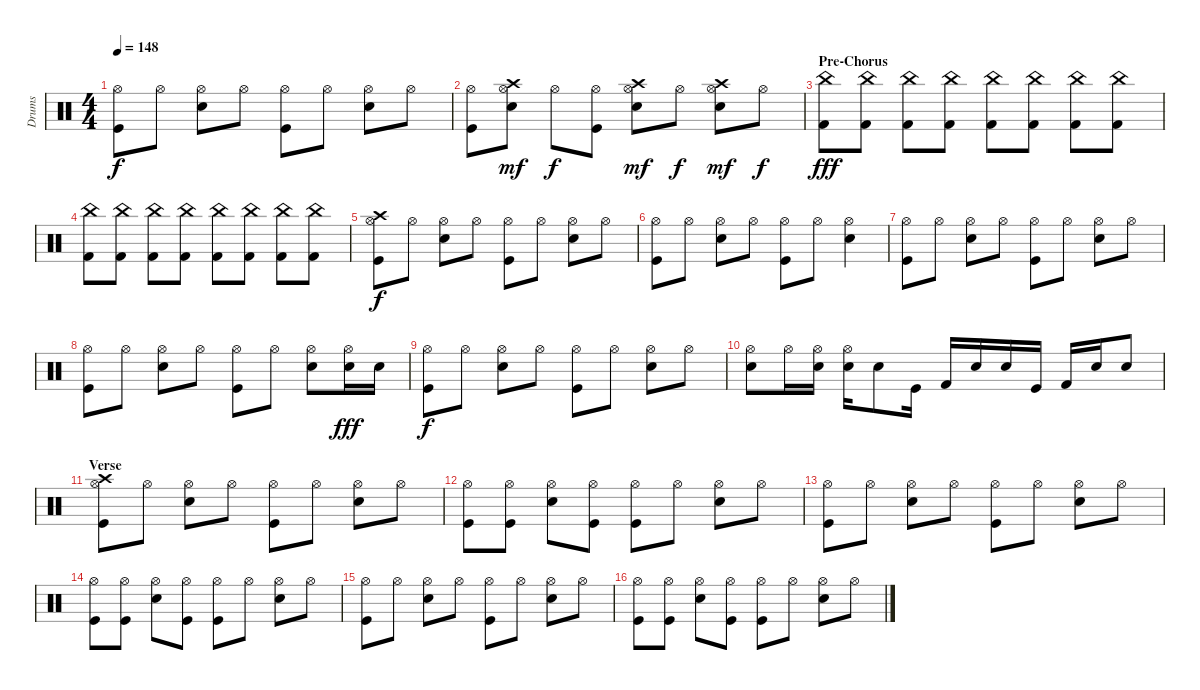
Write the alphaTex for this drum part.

\track ("Drums" "Drums") {instrument percussion}
\staff {score}
\articulation defaults
\ts (4 4)
\tempo 148
\clef neutral
\ks c
("Hi-Hat (open)" "Kick (hit)").8{dy f} "Hi-Hat (open)".8 ("Hi-Hat (open)" "Snare (hit) 2").8 "Hi-Hat (open)".8 ("Hi-Hat (open)" "Kick (hit)").8 "Hi-Hat (open)".8 ("Hi-Hat (open)" "Snare (hit) 2").8 "Hi-Hat (open)".8 |
("Hi-Hat (open)" "Kick (hit)").8 ("Crash high (hit)" "Hi-Hat (open)" "Snare (hit) 2").8{dy mf} "Hi-Hat (open)".8{dy f} ("Hi-Hat (open)" "Kick (hit)").8 ("Crash high (hit)" "Hi-Hat (open)" "Snare (hit) 2").8{dy mf} "Hi-Hat (open)".8{dy f} ("Crash high (hit)" "Hi-Hat (open)" "Snare (hit) 2").8{dy mf} "Hi-Hat (open)".8{dy f} |
\section ("" "Pre-Chorus")
("China (hit)" "Kick (hit) 2").8{dy fff} ("China (hit)" "Kick (hit) 2").8 ("China (hit)" "Kick (hit) 2").8 ("China (hit)" "Kick (hit) 2").8 ("China (hit)" "Kick (hit) 2").8 ("China (hit)" "Kick (hit) 2").8 ("China (hit)" "Kick (hit) 2").8 ("China (hit)" "Kick (hit) 2").8 |
("China (hit)" "Kick (hit) 2").8 ("China (hit)" "Kick (hit) 2").8 ("China (hit)" "Kick (hit) 2").8 ("China (hit)" "Kick (hit) 2").8 ("China (hit)" "Kick (hit) 2").8 ("China (hit)" "Kick (hit) 2").8 ("China (hit)" "Kick (hit) 2").8 ("China (hit)" "Kick (hit) 2").8 |
("Crash high (hit)" "Hi-Hat (open)" "Kick (hit)").8{dy f} "Hi-Hat (open)".8 ("Hi-Hat (open)" "Snare (hit) 2").8 "Hi-Hat (open)".8 ("Hi-Hat (open)" "Kick (hit)").8 "Hi-Hat (open)".8 ("Hi-Hat (open)" "Snare (hit) 2").8 "Hi-Hat (open)".8 |
("Hi-Hat (open)" "Kick (hit)").8 "Hi-Hat (open)".8 ("Hi-Hat (open)" "Snare (hit) 2").8 "Hi-Hat (open)".8 ("Hi-Hat (open)" "Kick (hit)").8 "Hi-Hat (open)".8 ("Hi-Hat (open)" "Snare (hit) 2").4 |
("Hi-Hat (open)" "Kick (hit)").8 "Hi-Hat (open)".8 ("Hi-Hat (open)" "Snare (hit) 2").8 "Hi-Hat (open)".8 ("Hi-Hat (open)" "Kick (hit)").8 "Hi-Hat (open)".8 ("Hi-Hat (open)" "Snare (hit) 2").8 "Hi-Hat (open)".8 |
("Hi-Hat (open)" "Kick (hit)").8 "Hi-Hat (open)".8 ("Hi-Hat (open)" "Snare (hit) 2").8 "Hi-Hat (open)".8 ("Hi-Hat (open)" "Kick (hit)").8 "Hi-Hat (open)".8 ("Hi-Hat (open)" "Snare (hit) 2").8 ("Hi-Hat (open)" "Electric Snare (hit)").16{dy fff} "Electric Snare (hit)".16 |
("Hi-Hat (open)" "Kick (hit)").8{dy f} "Hi-Hat (open)".8 ("Hi-Hat (open)" "Snare (hit) 2").8 "Hi-Hat (open)".8 ("Hi-Hat (open)" "Kick (hit)").8 "Hi-Hat (open)".8 ("Hi-Hat (open)" "Snare (hit) 2").8 "Hi-Hat (open)".8 |
("Hi-Hat (open)" "Snare (hit) 2").8 "Hi-Hat (open)".16 ("Hi-Hat (open)" "Snare (hit) 2").16 ("Hi-Hat (open)" "Electric Snare (hit)").16 "Snare (hit) 2".8 "Kick (hit)".16 "Kick (hit) 2".16 "Snare (hit) 2".16 "Electric Snare (hit)".16 "Kick (hit)".16 "Kick (hit) 2".16 "Snare (hit) 2".16 "Electric Snare (hit)".8 |
\section ("" "Verse")
("Crash high (hit)" "Hi-Hat (open)" "Kick (hit)").8 "Hi-Hat (open)".8 ("Hi-Hat (open)" "Snare (hit) 2").8 "Hi-Hat (open)".8 ("Hi-Hat (open)" "Kick (hit)").8 "Hi-Hat (open)".8 ("Hi-Hat (open)" "Snare (hit) 2").8 "Hi-Hat (open)".8 |
("Hi-Hat (open)" "Kick (hit)").8 ("Hi-Hat (open)" "Kick (hit)").8 ("Hi-Hat (open)" "Snare (hit) 2").8 ("Hi-Hat (open)" "Kick (hit)").8 ("Hi-Hat (open)" "Kick (hit)").8 "Hi-Hat (open)".8 ("Hi-Hat (open)" "Snare (hit) 2").8 "Hi-Hat (open)".8 |
("Hi-Hat (open)" "Kick (hit)").8 "Hi-Hat (open)".8 ("Hi-Hat (open)" "Snare (hit) 2").8 "Hi-Hat (open)".8 ("Hi-Hat (open)" "Kick (hit)").8 "Hi-Hat (open)".8 ("Hi-Hat (open)" "Snare (hit) 2").8 "Hi-Hat (open)".8 |
("Hi-Hat (open)" "Kick (hit)").8 ("Hi-Hat (open)" "Kick (hit)").8 ("Hi-Hat (open)" "Snare (hit) 2").8 ("Hi-Hat (open)" "Kick (hit)").8 ("Hi-Hat (open)" "Kick (hit)").8 "Hi-Hat (open)".8 ("Hi-Hat (open)" "Snare (hit) 2").8 "Hi-Hat (open)".8 |
("Hi-Hat (open)" "Kick (hit)").8 "Hi-Hat (open)".8 ("Hi-Hat (open)" "Snare (hit) 2").8 "Hi-Hat (open)".8 ("Hi-Hat (open)" "Kick (hit)").8 "Hi-Hat (open)".8 ("Hi-Hat (open)" "Snare (hit) 2").8 "Hi-Hat (open)".8 |
("Hi-Hat (open)" "Kick (hit)").8 ("Hi-Hat (open)" "Kick (hit)").8 ("Hi-Hat (open)" "Snare (hit) 2").8 ("Hi-Hat (open)" "Kick (hit)").8 ("Hi-Hat (open)" "Kick (hit)").8 "Hi-Hat (open)".8 ("Hi-Hat (open)" "Snare (hit) 2").8 "Hi-Hat (open)".8
